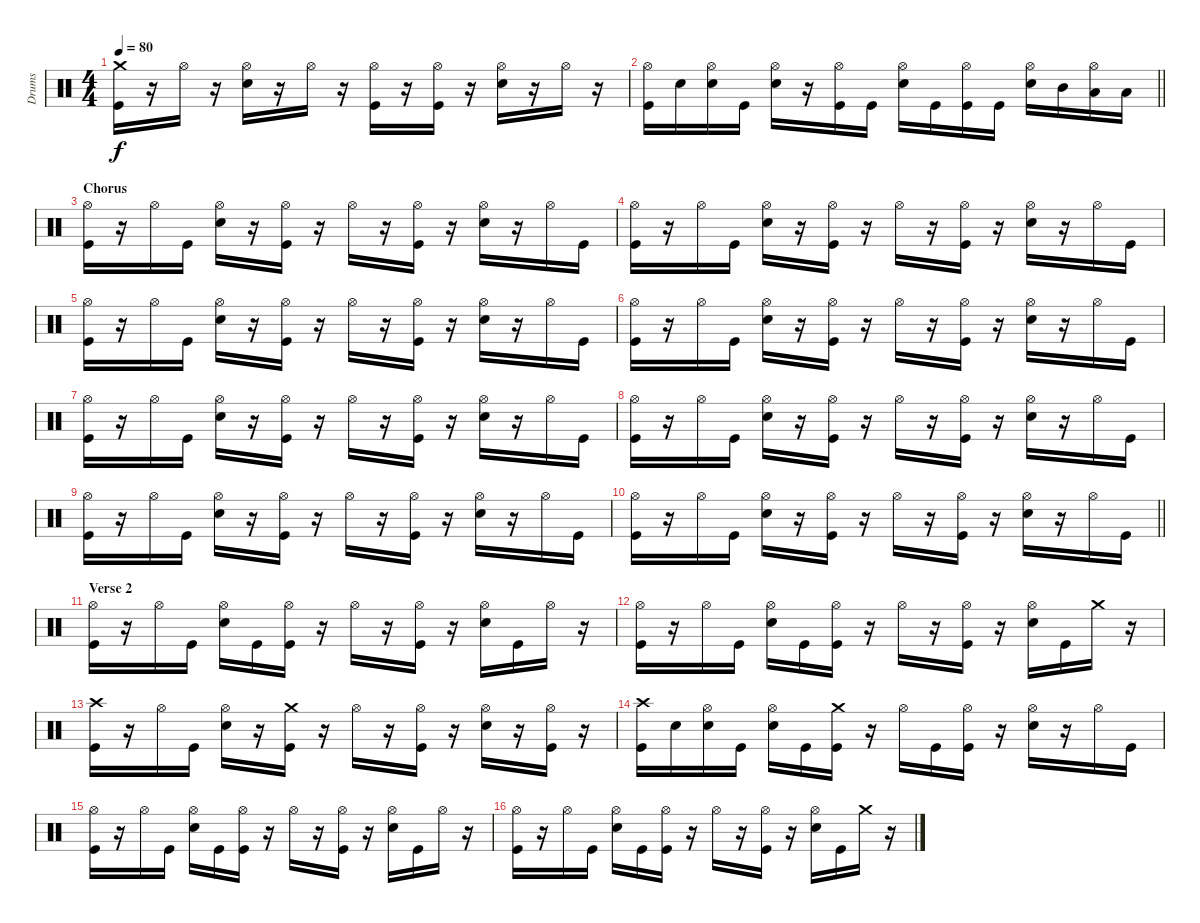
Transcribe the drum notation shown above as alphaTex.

\track ("Drums" "Drums") {instrument percussion}
\staff {score}
\articulation defaults
\ts (4 4)
\tempo 80
\clef neutral
\ks c
("Crash medium (hit)" "Kick (hit)").16{dy f} r.16 "Hi-Hat (open)".16 r.16 ("Hi-Hat (open)" "Electric Snare (hit)").16 r.16 "Hi-Hat (open)".16 r.16 ("Hi-Hat (open)" "Kick (hit)").16 r.16 ("Hi-Hat (open)" "Kick (hit)").16 r.16 ("Hi-Hat (open)" "Electric Snare (hit)").16 r.16 "Hi-Hat (open)".16 r.16 |
\barLineRight lightlight
("Hi-Hat (open)" "Kick (hit)").16 "Electric Snare (hit)".16 ("Hi-Hat (open)" "Electric Snare (hit)").16 "Kick (hit)".16 ("Hi-Hat (open)" "Electric Snare (hit)").16 r.16 ("Hi-Hat (open)" "Kick (hit)").16 "Kick (hit)".16 ("Hi-Hat (open)" "Electric Snare (hit)").16 "Kick (hit)".16 ("Hi-Hat (open)" "Kick (hit)").16 "Kick (hit)".16 ("Hi-Hat (open)" "Electric Snare (hit)").16 "Mid Tom (hit)".16 ("Hi-Hat (open)" "Low Tom (hit)").16 "Low Floor Tom (hit)".16 |
\section ("" "Chorus")
("Hi-Hat (open)" "Kick (hit)").16 r.16 "Hi-Hat (open)".16 "Kick (hit)".16 ("Hi-Hat (open)" "Electric Snare (hit)").16 r.16 ("Hi-Hat (open)" "Kick (hit)").16 r.16 "Hi-Hat (open)".16 r.16 ("Hi-Hat (open)" "Kick (hit)").16 r.16 ("Hi-Hat (open)" "Electric Snare (hit)").16 r.16 "Hi-Hat (open)".16 "Kick (hit)".16 |
("Hi-Hat (open)" "Kick (hit)").16 r.16 "Hi-Hat (open)".16 "Kick (hit)".16 ("Hi-Hat (open)" "Electric Snare (hit)").16 r.16 ("Hi-Hat (open)" "Kick (hit)").16 r.16 "Hi-Hat (open)".16 r.16 ("Hi-Hat (open)" "Kick (hit)").16 r.16 ("Hi-Hat (open)" "Electric Snare (hit)").16 r.16 "Hi-Hat (open)".16 "Kick (hit)".16 |
("Hi-Hat (open)" "Kick (hit)").16 r.16 "Hi-Hat (open)".16 "Kick (hit)".16 ("Hi-Hat (open)" "Electric Snare (hit)").16 r.16 ("Hi-Hat (open)" "Kick (hit)").16 r.16 "Hi-Hat (open)".16 r.16 ("Hi-Hat (open)" "Kick (hit)").16 r.16 ("Hi-Hat (open)" "Electric Snare (hit)").16 r.16 "Hi-Hat (open)".16 "Kick (hit)".16 |
("Hi-Hat (open)" "Kick (hit)").16 r.16 "Hi-Hat (open)".16 "Kick (hit)".16 ("Hi-Hat (open)" "Electric Snare (hit)").16 r.16 ("Hi-Hat (open)" "Kick (hit)").16 r.16 "Hi-Hat (open)".16 r.16 ("Hi-Hat (open)" "Kick (hit)").16 r.16 ("Hi-Hat (open)" "Electric Snare (hit)").16 r.16 "Hi-Hat (open)".16 "Kick (hit)".16 |
("Hi-Hat (open)" "Kick (hit)").16 r.16 "Hi-Hat (open)".16 "Kick (hit)".16 ("Hi-Hat (open)" "Electric Snare (hit)").16 r.16 ("Hi-Hat (open)" "Kick (hit)").16 r.16 "Hi-Hat (open)".16 r.16 ("Hi-Hat (open)" "Kick (hit)").16 r.16 ("Hi-Hat (open)" "Electric Snare (hit)").16 r.16 "Hi-Hat (open)".16 "Kick (hit)".16 |
("Hi-Hat (open)" "Kick (hit)").16 r.16 "Hi-Hat (open)".16 "Kick (hit)".16 ("Hi-Hat (open)" "Electric Snare (hit)").16 r.16 ("Hi-Hat (open)" "Kick (hit)").16 r.16 "Hi-Hat (open)".16 r.16 ("Hi-Hat (open)" "Kick (hit)").16 r.16 ("Hi-Hat (open)" "Electric Snare (hit)").16 r.16 "Hi-Hat (open)".16 "Kick (hit)".16 |
("Hi-Hat (open)" "Kick (hit)").16 r.16 "Hi-Hat (open)".16 "Kick (hit)".16 ("Hi-Hat (open)" "Electric Snare (hit)").16 r.16 ("Hi-Hat (open)" "Kick (hit)").16 r.16 "Hi-Hat (open)".16 r.16 ("Hi-Hat (open)" "Kick (hit)").16 r.16 ("Hi-Hat (open)" "Electric Snare (hit)").16 r.16 "Hi-Hat (open)".16 "Kick (hit)".16 |
\barLineRight lightlight
("Hi-Hat (open)" "Kick (hit)").16 r.16 "Hi-Hat (open)".16 "Kick (hit)".16 ("Hi-Hat (open)" "Electric Snare (hit)").16 r.16 ("Hi-Hat (open)" "Kick (hit)").16 r.16 "Hi-Hat (open)".16 r.16 ("Hi-Hat (open)" "Kick (hit)").16 r.16 ("Hi-Hat (open)" "Electric Snare (hit)").16 r.16 "Hi-Hat (open)".16 "Kick (hit)".16 |
\section ("" "Verse 2")
("Hi-Hat (open)" "Kick (hit)").16 r.16 "Hi-Hat (open)".16 "Kick (hit)".16 ("Hi-Hat (open)" "Electric Snare (hit)").16 "Kick (hit)".16 ("Hi-Hat (open)" "Kick (hit)").16 r.16 "Hi-Hat (open)".16 r.16 ("Hi-Hat (open)" "Kick (hit)").16 r.16 ("Hi-Hat (open)" "Electric Snare (hit)").16 "Kick (hit)".16 "Hi-Hat (open)".16 r.16 |
("Hi-Hat (open)" "Kick (hit)").16 r.16 "Hi-Hat (open)".16 "Kick (hit)".16 ("Hi-Hat (open)" "Electric Snare (hit)").16 "Kick (hit)".16 ("Hi-Hat (open)" "Kick (hit)").16 r.16 "Hi-Hat (open)".16 r.16 ("Hi-Hat (open)" "Kick (hit)").16 r.16 ("Hi-Hat (open)" "Electric Snare (hit)").16 "Kick (hit)".16 "Crash medium (hit)".16 r.16 |
("Crash high (hit)" "Kick (hit)").16 r.16 "Hi-Hat (open)".16 "Kick (hit)".16 ("Hi-Hat (open)" "Electric Snare (hit)").16 r.16 ("Crash medium (hit)" "Kick (hit)").16 r.16 "Hi-Hat (open)".16 r.16 ("Hi-Hat (open)" "Kick (hit)").16 r.16 ("Hi-Hat (open)" "Electric Snare (hit)").16 r.16 ("Hi-Hat (open)" "Kick (hit)").16 r.16 |
("Crash high (hit)" "Kick (hit)").16 "Electric Snare (hit)".16 ("Hi-Hat (open)" "Electric Snare (hit)").16 "Kick (hit)".16 ("Hi-Hat (open)" "Electric Snare (hit)").16 "Kick (hit)".16 ("Crash medium (hit)" "Kick (hit)").16 r.16 "Hi-Hat (open)".16 "Kick (hit)".16 ("Hi-Hat (open)" "Kick (hit)").16 r.16 ("Hi-Hat (open)" "Electric Snare (hit)").16 r.16 "Hi-Hat (open)".16 "Kick (hit)".16 |
("Hi-Hat (open)" "Kick (hit)").16 r.16 "Hi-Hat (open)".16 "Kick (hit)".16 ("Hi-Hat (open)" "Electric Snare (hit)").16 "Kick (hit)".16 ("Hi-Hat (open)" "Kick (hit)").16 r.16 "Hi-Hat (open)".16 r.16 ("Hi-Hat (open)" "Kick (hit)").16 r.16 ("Hi-Hat (open)" "Electric Snare (hit)").16 "Kick (hit)".16 "Hi-Hat (open)".16 r.16 |
("Hi-Hat (open)" "Kick (hit)").16 r.16 "Hi-Hat (open)".16 "Kick (hit)".16 ("Hi-Hat (open)" "Electric Snare (hit)").16 "Kick (hit)".16 ("Hi-Hat (open)" "Kick (hit)").16 r.16 "Hi-Hat (open)".16 r.16 ("Hi-Hat (open)" "Kick (hit)").16 r.16 ("Hi-Hat (open)" "Electric Snare (hit)").16 "Kick (hit)".16 "Crash medium (hit)".16 r.16
